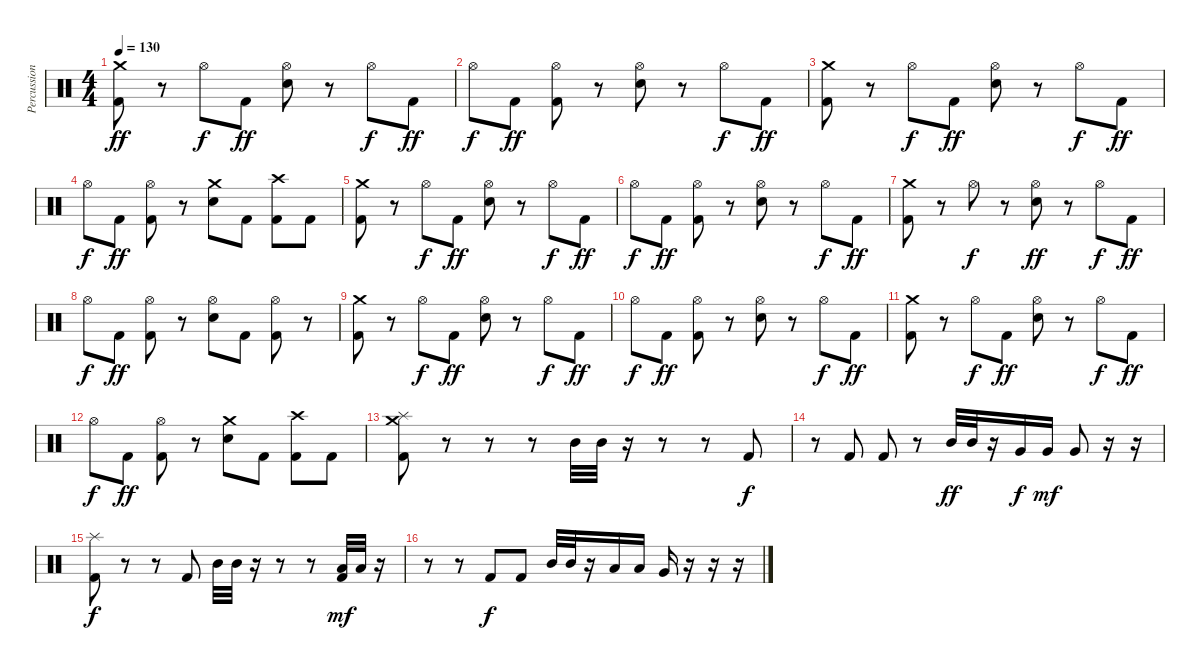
\track ("Percussion" "Percussion") {instrument percussion}
\staff {score}
\articulation defaults
\ts (4 4)
\tempo 130
\clef neutral
\ks c
("Crash medium (hit)" "Kick (hit) 2").8{dy ff} r.8 "Hi-Hat (open)".8{dy f} "Kick (hit) 2".8{dy ff} ("Hi-Hat (open)" "Electric Snare (hit)").8 r.8 "Hi-Hat (open)".8{dy f} "Kick (hit) 2".8{dy ff} |
"Hi-Hat (open)".8{dy f} "Kick (hit) 2".8{dy ff} ("Hi-Hat (open)" "Kick (hit) 2").8 r.8 ("Hi-Hat (open)" "Electric Snare (hit)").8 r.8 "Hi-Hat (open)".8{dy f} "Kick (hit) 2".8{dy ff} |
("Crash medium (hit)" "Kick (hit) 2").8 r.8 "Hi-Hat (open)".8{dy f} "Kick (hit) 2".8{dy ff} ("Hi-Hat (open)" "Electric Snare (hit)").8 r.8 "Hi-Hat (open)".8{dy f} "Kick (hit) 2".8{dy ff} |
"Hi-Hat (open)".8{dy f} "Kick (hit) 2".8{dy ff} ("Hi-Hat (open)" "Kick (hit) 2").8 r.8 ("Crash medium (hit)" "Electric Snare (hit)").8 "Kick (hit) 2".8 ("Crash high (hit)" "Kick (hit) 2").8 "Kick (hit) 2".8 |
("Crash medium (hit)" "Kick (hit) 2").8 r.8 "Hi-Hat (open)".8{dy f} "Kick (hit) 2".8{dy ff} ("Hi-Hat (open)" "Electric Snare (hit)").8 r.8 "Hi-Hat (open)".8{dy f} "Kick (hit) 2".8{dy ff} |
"Hi-Hat (open)".8{dy f} "Kick (hit) 2".8{dy ff} ("Hi-Hat (open)" "Kick (hit) 2").8 r.8 ("Hi-Hat (open)" "Electric Snare (hit)").8 r.8 "Hi-Hat (open)".8{dy f} "Kick (hit) 2".8{dy ff} |
("Crash medium (hit)" "Kick (hit) 2").8 r.8 "Hi-Hat (open)".8{dy f} r.8 ("Hi-Hat (open)" "Electric Snare (hit)").8{dy ff} r.8 "Hi-Hat (open)".8{dy f} "Kick (hit) 2".8{dy ff} |
"Hi-Hat (open)".8{dy f} "Kick (hit) 2".8{dy ff} ("Hi-Hat (open)" "Kick (hit) 2").8 r.8 ("Hi-Hat (open)" "Electric Snare (hit)").8 "Kick (hit) 2".8 ("Hi-Hat (open)" "Kick (hit) 2").8 r.8 |
("Crash medium (hit)" "Kick (hit) 2").8 r.8 "Hi-Hat (open)".8{dy f} "Kick (hit) 2".8{dy ff} ("Hi-Hat (open)" "Electric Snare (hit)").8 r.8 "Hi-Hat (open)".8{dy f} "Kick (hit) 2".8{dy ff} |
"Hi-Hat (open)".8{dy f} "Kick (hit) 2".8{dy ff} ("Hi-Hat (open)" "Kick (hit) 2").8 r.8 ("Hi-Hat (open)" "Electric Snare (hit)").8 r.8 "Hi-Hat (open)".8{dy f} "Kick (hit) 2".8{dy ff} |
("Crash medium (hit)" "Kick (hit) 2").8 r.8 "Hi-Hat (open)".8{dy f} "Kick (hit) 2".8{dy ff} ("Hi-Hat (open)" "Electric Snare (hit)").8 r.8 "Hi-Hat (open)".8{dy f} "Kick (hit) 2".8{dy ff} |
"Hi-Hat (open)".8{dy f} "Kick (hit) 2".8{dy ff} ("Hi-Hat (open)" "Kick (hit) 2").8 r.8 ("Crash medium (hit)" "Electric Snare (hit)").8 "Kick (hit) 2".8 ("Crash high (hit)" "Kick (hit) 2").8 "Kick (hit) 2".8 |
("Splash (hit)" "Crash medium (hit)" "Kick (hit) 2").8 r.8 r.8 r.8 "Mid Tom (hit)".32 "Mid Tom (hit)".32 r.16 r.8 r.8 "Kick (hit) 2".8{dy f} |
r.8 "Kick (hit) 2".8 "Kick (hit) 2".8 r.8 "Mid Tom (hit)".32{dy ff} "Mid Tom (hit)".32 r.16 "Very Low Tom (hit)".16{dy f} "Very Low Tom (hit)".16{dy mf} "Very Low Tom (hit)".8 r.16 r.16 |
("Splash (hit)" "Kick (hit) 2").8{dy f} r.8 r.8 "Kick (hit) 2".8 "Mid Tom (hit)".32 "Mid Tom (hit)".32 r.16 r.8 r.8 ("Low Tom (hit)" "Kick (hit) 2").32{dy mf} "Low Tom (hit)".32 r.16 |
r.8 r.8 "Kick (hit) 2".8{dy f} "Kick (hit) 2".8 "Mid Tom (hit)".32 "Mid Tom (hit)".32 r.16 "Low Tom (hit)".16 "Low Tom (hit)".16 "Very Low Tom (hit)".16 r.16 r.16 r.16
